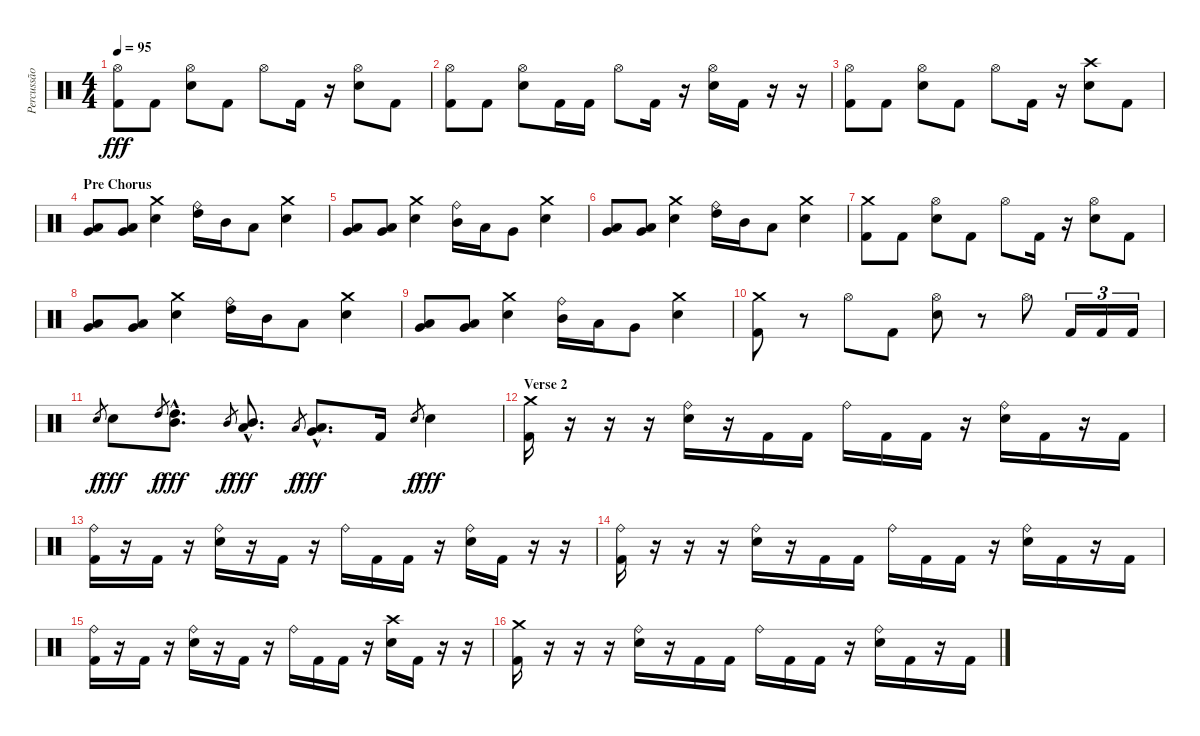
\track ("Percussão" "Percussão") {instrument percussion}
\staff {score}
\articulation defaults
\ts (4 4)
\tempo 95
\clef neutral
\ks c
("Hi-Hat (open)" "Kick (hit) 2").8{dy fff} "Kick (hit) 2".8 ("Hi-Hat (open)" "Electric Snare (hit)").8 "Kick (hit) 2".8 "Hi-Hat (open)".8 "Kick (hit) 2".16 r.16 ("Hi-Hat (open)" "Electric Snare (hit)").8 "Kick (hit) 2".8 |
("Hi-Hat (open)" "Kick (hit) 2").8 "Kick (hit) 2".8 ("Hi-Hat (open)" "Electric Snare (hit)").8 "Kick (hit) 2".16 "Kick (hit) 2".16 "Hi-Hat (open)".8 "Kick (hit) 2".16 r.16 ("Hi-Hat (open)" "Electric Snare (hit)").16 "Kick (hit) 2".16 r.16 r.16 |
("Hi-Hat (open)" "Kick (hit) 2").8 "Kick (hit) 2".8 ("Hi-Hat (open)" "Electric Snare (hit)").8 "Kick (hit) 2".8 "Hi-Hat (open)".8 "Kick (hit) 2".16 r.16 ("Crash high (hit)" "Electric Snare (hit)").8 "Kick (hit) 2".8 |
\section ("" "Pre Chorus")
("Low Floor Tom (hit)" "Very Low Tom (hit)").8 ("Low Floor Tom (hit)" "Very Low Tom (hit)").8 ("Crash medium (hit)" "Electric Snare (hit)").4 ("Ride (bell)" "High Tom (hit)").16 "Mid Tom (hit)".16 "Low Tom (hit)".8 ("Crash medium (hit)" "Electric Snare (hit)").4 |
("Low Floor Tom (hit)" "Very Low Tom (hit)").8 ("Low Floor Tom (hit)" "Very Low Tom (hit)").8 ("Crash medium (hit)" "Electric Snare (hit)").4 ("Ride (bell)" "Mid Tom (hit)").16 "Low Tom (hit)".16 "Very Low Tom (hit)".8 ("Crash medium (hit)" "Electric Snare (hit)").4 |
("Low Floor Tom (hit)" "Very Low Tom (hit)").8 ("Low Floor Tom (hit)" "Very Low Tom (hit)").8 ("Crash medium (hit)" "Electric Snare (hit)").4 ("Ride (bell)" "High Tom (hit)").16 "Mid Tom (hit)".16 "Low Tom (hit)".8 ("Crash medium (hit)" "Electric Snare (hit)").4 |
("Crash medium (hit)" "Kick (hit) 2").8 "Kick (hit) 2".8 ("Hi-Hat (open)" "Electric Snare (hit)").8 "Kick (hit) 2".8 "Hi-Hat (open)".8 "Kick (hit) 2".16 r.16 ("Hi-Hat (open)" "Electric Snare (hit)").8 "Kick (hit) 2".8 |
("Low Floor Tom (hit)" "Very Low Tom (hit)").8 ("Low Floor Tom (hit)" "Very Low Tom (hit)").8 ("Crash medium (hit)" "Electric Snare (hit)").4 ("Ride (bell)" "High Tom (hit)").16 "Mid Tom (hit)".16 "Low Tom (hit)".8 ("Crash medium (hit)" "Electric Snare (hit)").4 |
("Low Floor Tom (hit)" "Very Low Tom (hit)").8 ("Low Floor Tom (hit)" "Very Low Tom (hit)").8 ("Crash medium (hit)" "Electric Snare (hit)").4 ("Ride (bell)" "Mid Tom (hit)").16 "Low Tom (hit)".16 "Very Low Tom (hit)".8 ("Crash medium (hit)" "Electric Snare (hit)").4 |
("Crash medium (hit)" "Kick (hit) 2").8 r.8 "Hi-Hat (open)".8 "Kick (hit) 2".8 ("Hi-Hat (open)" "Electric Snare (hit)").8 r.8 "Hi-Hat (open)".8 "Kick (hit) 2".16{tu (3 2)} "Kick (hit) 2".16{tu (3 2)} "Kick (hit) 2".16{tu (3 2)} |
"Electric Snare (hit)".8{gr dy f} "Electric Snare (hit)".8{dy fff} "High Tom (hit)".8{gr dy f} ("High Tom (hit)"{hac} "Mid Tom (hit)"{hac}).8{d dy fff} "Mid Tom (hit)".8{gr dy f} ("Mid Tom (hit)"{hac} "Low Tom (hit)"{hac}).8{d dy fff} "Low Tom (hit)".8{gr dy f} ("Low Tom (hit)"{hac} "Very Low Tom (hit)"{hac}).8{d dy fff} "Kick (hit) 2".16 "Electric Snare (hit)".8{gr dy f} "Electric Snare (hit)".4{dy fff} |
\section ("" "Verse 2")
("Crash medium (hit)" "Kick (hit) 2").16 r.16 r.16 r.16 ("Ride (bell)" "Electric Snare (hit)").16 r.16 "Kick (hit) 2".16 "Kick (hit) 2".16 "Ride (bell)".16 "Kick (hit) 2".16 "Kick (hit) 2".16 r.16 ("Ride (bell)" "Electric Snare (hit)").16 "Kick (hit) 2".16 r.16 "Kick (hit) 2".16 |
("Ride (bell)" "Kick (hit) 2").16 r.16 "Kick (hit) 2".16 r.16 ("Ride (bell)" "Electric Snare (hit)").16 r.16 "Kick (hit) 2".16 r.16 "Ride (bell)".16 "Kick (hit) 2".16 "Kick (hit) 2".16 r.16 ("Ride (bell)" "Electric Snare (hit)").16 "Kick (hit) 2".16 r.16 r.16 |
("Ride (bell)" "Kick (hit) 2").16 r.16 r.16 r.16 ("Ride (bell)" "Electric Snare (hit)").16 r.16 "Kick (hit) 2".16 "Kick (hit) 2".16 "Ride (bell)".16 "Kick (hit) 2".16 "Kick (hit) 2".16 r.16 ("Ride (bell)" "Electric Snare (hit)").16 "Kick (hit) 2".16 r.16 "Kick (hit) 2".16 |
("Ride (bell)" "Kick (hit) 2").16 r.16 "Kick (hit) 2".16 r.16 ("Ride (bell)" "Electric Snare (hit)").16 r.16 "Kick (hit) 2".16 r.16 "Ride (bell)".16 "Kick (hit) 2".16 "Kick (hit) 2".16 r.16 ("Crash high (hit)" "Electric Snare (hit)").16 "Kick (hit) 2".16 r.16 r.16 |
("Crash medium (hit)" "Kick (hit) 2").16 r.16 r.16 r.16 ("Ride (bell)" "Electric Snare (hit)").16 r.16 "Kick (hit) 2".16 "Kick (hit) 2".16 "Ride (bell)".16 "Kick (hit) 2".16 "Kick (hit) 2".16 r.16 ("Ride (bell)" "Electric Snare (hit)").16 "Kick (hit) 2".16 r.16 "Kick (hit) 2".16
